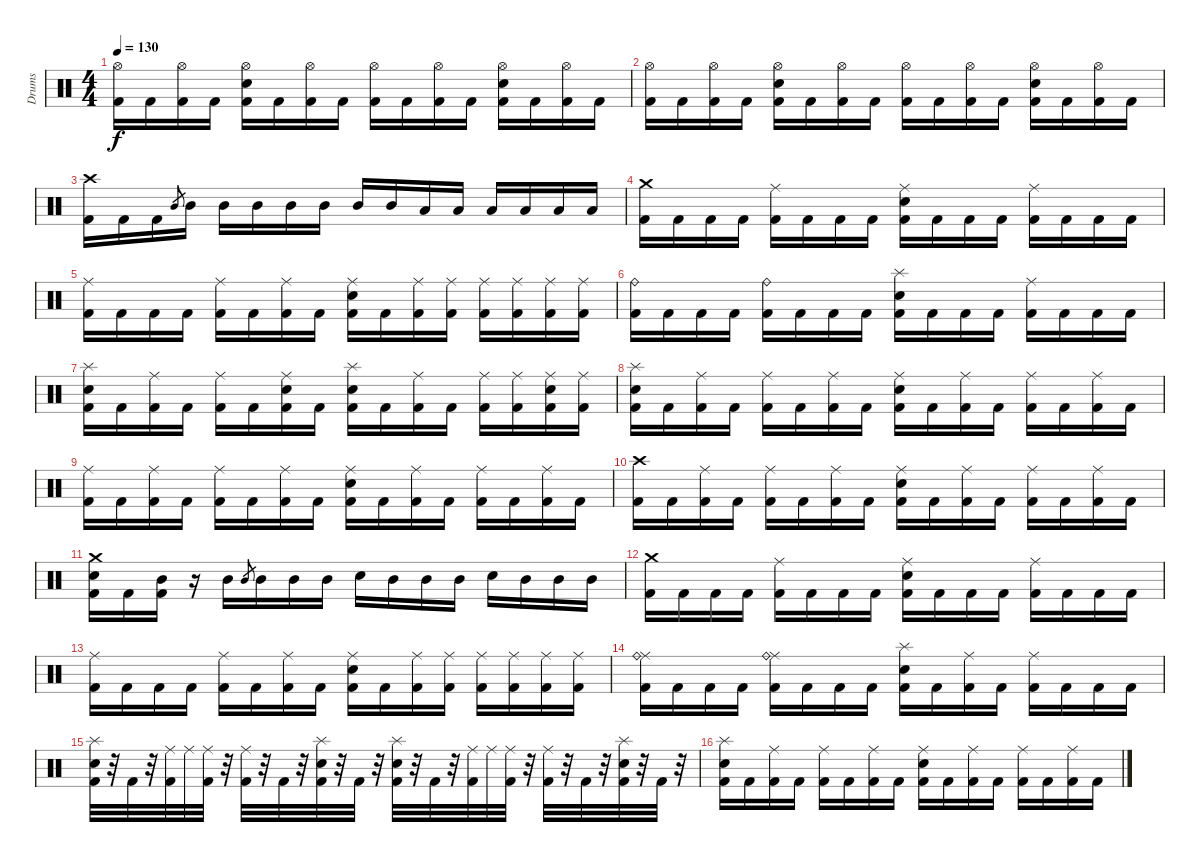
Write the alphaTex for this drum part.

\track ("Drums" "Drums") {instrument percussion}
\staff {score}
\articulation defaults
\ts (4 4)
\tempo 130
\clef neutral
\ks c
("Hi-Hat (open)" "Kick (hit) 2").16{dy f} "Kick (hit) 2".16 ("Hi-Hat (open)" "Kick (hit) 2").16 "Kick (hit) 2".16 ("Hi-Hat (open)" "Electric Snare (hit)" "Kick (hit) 2").16 "Kick (hit) 2".16 ("Hi-Hat (open)" "Kick (hit) 2").16 "Kick (hit) 2".16 ("Hi-Hat (open)" "Kick (hit) 2").16 "Kick (hit) 2".16 ("Hi-Hat (open)" "Kick (hit) 2").16 "Kick (hit) 2".16 ("Hi-Hat (open)" "Electric Snare (hit)" "Kick (hit) 2").16 "Kick (hit) 2".16 ("Hi-Hat (open)" "Kick (hit) 2").16 "Kick (hit) 2".16 |
("Hi-Hat (open)" "Kick (hit) 2").16 "Kick (hit) 2".16 ("Hi-Hat (open)" "Kick (hit) 2").16 "Kick (hit) 2".16 ("Hi-Hat (open)" "Electric Snare (hit)" "Kick (hit) 2").16 "Kick (hit) 2".16 ("Hi-Hat (open)" "Kick (hit) 2").16 "Kick (hit) 2".16 ("Hi-Hat (open)" "Kick (hit) 2").16 "Kick (hit) 2".16 ("Hi-Hat (open)" "Kick (hit) 2").16 "Kick (hit) 2".16 ("Hi-Hat (open)" "Electric Snare (hit)" "Kick (hit) 2").16 "Kick (hit) 2".16 ("Hi-Hat (open)" "Kick (hit) 2").16 "Kick (hit) 2".16 |
("Crash high (hit)" "Kick (hit) 2").16 "Kick (hit) 2".16 "Kick (hit) 2".16 "Mid Tom (hit)".8{gr} "Mid Tom (hit)".16 "Mid Tom (hit)".16 "Mid Tom (hit)".16 "Mid Tom (hit)".16 "Mid Tom (hit)".16 "Mid Tom (hit)".16 "Mid Tom (hit)".16 "Low Tom (hit)".16 "Low Tom (hit)".16 "Low Tom (hit)".16 "Low Tom (hit)".16 "Low Tom (hit)".16 "Low Tom (hit)".16 |
("Crash medium (hit)" "Kick (hit) 2").16 "Kick (hit) 2".16 "Kick (hit) 2".16 "Kick (hit) 2".16 ("Ride (middle)" "Kick (hit) 2").16 "Kick (hit) 2".16 "Kick (hit) 2".16 "Kick (hit) 2".16 ("Ride (middle)" "Electric Snare (hit)" "Kick (hit) 2").16 "Kick (hit) 2".16 "Kick (hit) 2".16 "Kick (hit) 2".16 ("Ride (middle)" "Kick (hit) 2").16 "Kick (hit) 2".16 "Kick (hit) 2".16 "Kick (hit) 2".16 |
("Ride (middle)" "Kick (hit) 2").16 "Kick (hit) 2".16 "Kick (hit) 2".16 "Kick (hit) 2".16 ("Ride (middle)" "Kick (hit) 2").16 "Kick (hit) 2".16 ("Ride (middle)" "Kick (hit) 2").16 "Kick (hit) 2".16 ("Ride (middle)" "Electric Snare (hit)" "Kick (hit) 2").16 "Kick (hit) 2".16 ("Ride (middle)" "Kick (hit) 2").16 ("Ride (middle)" "Kick (hit) 2").16 ("Ride (middle)" "Kick (hit) 2").16 ("Ride (middle)" "Kick (hit) 2").16 ("Ride (middle)" "Kick (hit) 2").16 ("Ride (middle)" "Kick (hit) 2").16 |
("Ride (bell)" "Kick (hit) 2").16 "Kick (hit) 2".16 "Kick (hit) 2".16 "Kick (hit) 2".16 ("Ride (bell)" "Kick (hit) 2").16 "Kick (hit) 2".16 "Kick (hit) 2".16 "Kick (hit) 2".16 ("Splash (hit)" "Electric Snare (hit)" "Kick (hit) 2").16 "Kick (hit) 2".16 "Kick (hit) 2".16 "Kick (hit) 2".16 ("Ride (middle)" "Kick (hit) 2").16 "Kick (hit) 2".16 "Kick (hit) 2".16 "Kick (hit) 2".16 |
("Splash (hit)" "Electric Snare (hit)" "Kick (hit) 2").16 "Kick (hit) 2".16 ("Ride (middle)" "Kick (hit) 2").16 "Kick (hit) 2".16 ("Ride (middle)" "Kick (hit) 2").16 "Kick (hit) 2".16 ("Ride (middle)" "Electric Snare (hit)" "Kick (hit) 2").16 "Kick (hit) 2".16 ("Splash (hit)" "Electric Snare (hit)" "Kick (hit) 2").16 "Kick (hit) 2".16 ("Ride (middle)" "Kick (hit) 2").16 "Kick (hit) 2".16 ("Ride (middle)" "Kick (hit) 2").16 ("Ride (middle)" "Kick (hit) 2").16 ("Ride (middle)" "Electric Snare (hit)" "Kick (hit) 2").16 ("Ride (middle)" "Kick (hit) 2").16 |
("Splash (hit)" "Electric Snare (hit)" "Kick (hit) 2").16 "Kick (hit) 2".16 ("Ride (middle)" "Kick (hit) 2").16 "Kick (hit) 2".16 ("Ride (middle)" "Kick (hit) 2").16 "Kick (hit) 2".16 ("Ride (middle)" "Kick (hit) 2").16 "Kick (hit) 2".16 ("Ride (middle)" "Electric Snare (hit)" "Kick (hit) 2").16 "Kick (hit) 2".16 ("Ride (middle)" "Kick (hit) 2").16 "Kick (hit) 2".16 ("Ride (middle)" "Kick (hit) 2").16 "Kick (hit) 2".16 ("Ride (middle)" "Kick (hit) 2").16 "Kick (hit) 2".16 |
("Ride (middle)" "Kick (hit) 2").16 "Kick (hit) 2".16 ("Ride (middle)" "Kick (hit) 2").16 "Kick (hit) 2".16 ("Ride (middle)" "Kick (hit) 2").16 "Kick (hit) 2".16 ("Ride (middle)" "Kick (hit) 2").16 "Kick (hit) 2".16 ("Ride (middle)" "Electric Snare (hit)" "Kick (hit) 2").16 "Kick (hit) 2".16 ("Ride (middle)" "Kick (hit) 2").16 "Kick (hit) 2".16 ("Ride (middle)" "Kick (hit) 2").16 "Kick (hit) 2".16 ("Ride (middle)" "Kick (hit) 2").16 "Kick (hit) 2".16 |
("Crash high (hit)" "Kick (hit) 2").16 "Kick (hit) 2".16 ("Ride (middle)" "Kick (hit) 2").16 "Kick (hit) 2".16 ("Ride (middle)" "Kick (hit) 2").16 "Kick (hit) 2".16 ("Ride (middle)" "Kick (hit) 2").16 "Kick (hit) 2".16 ("Ride (middle)" "Electric Snare (hit)" "Kick (hit) 2").16 "Kick (hit) 2".16 ("Ride (middle)" "Kick (hit) 2").16 "Kick (hit) 2".16 ("Ride (middle)" "Kick (hit) 2").16 "Kick (hit) 2".16 ("Ride (middle)" "Kick (hit) 2").16 "Kick (hit) 2".16 |
("Crash medium (hit)" "Electric Snare (hit)" "Kick (hit) 2").16 "Kick (hit) 2".16 ("Mid Tom (hit)" "Kick (hit) 2").16 r.16 "Mid Tom (hit)".16 "Mid Tom (hit)".8{gr} "Mid Tom (hit)".16 "Mid Tom (hit)".16 "Mid Tom (hit)".16 "Electric Snare (hit)".16 "Mid Tom (hit)".16 "Mid Tom (hit)".16 "Mid Tom (hit)".16 "Electric Snare (hit)".16 "Mid Tom (hit)".16 "Mid Tom (hit)".16 "Mid Tom (hit)".16 |
("Crash medium (hit)" "Kick (hit) 2").16 "Kick (hit) 2".16 "Kick (hit) 2".16 "Kick (hit) 2".16 ("Ride (middle)" "Kick (hit) 2").16 "Kick (hit) 2".16 "Kick (hit) 2".16 "Kick (hit) 2".16 ("Ride (middle)" "Electric Snare (hit)" "Kick (hit) 2").16 "Kick (hit) 2".16 "Kick (hit) 2".16 "Kick (hit) 2".16 ("Ride (middle)" "Kick (hit) 2").16 "Kick (hit) 2".16 "Kick (hit) 2".16 "Kick (hit) 2".16 |
("Ride (middle)" "Kick (hit) 2").16 "Kick (hit) 2".16 "Kick (hit) 2".16 "Kick (hit) 2".16 ("Ride (middle)" "Kick (hit) 2").16 "Kick (hit) 2".16 ("Ride (middle)" "Kick (hit) 2").16 "Kick (hit) 2".16 ("Ride (middle)" "Electric Snare (hit)" "Kick (hit) 2").16 "Kick (hit) 2".16 ("Ride (middle)" "Kick (hit) 2").16 ("Ride (middle)" "Kick (hit) 2").16 ("Ride (middle)" "Kick (hit) 2").16 ("Ride (middle)" "Kick (hit) 2").16 ("Ride (middle)" "Kick (hit) 2").16 ("Ride (middle)" "Kick (hit) 2").16 |
("Ride (middle)" "Ride (bell)" "Kick (hit) 2").16 "Kick (hit) 2".16 "Kick (hit) 2".16 "Kick (hit) 2".16 ("Ride (middle)" "Ride (bell)" "Kick (hit) 2").16 "Kick (hit) 2".16 "Kick (hit) 2".16 "Kick (hit) 2".16 ("Splash (hit)" "Electric Snare (hit)" "Kick (hit) 2").16 "Kick (hit) 2".16 ("Ride (middle)" "Kick (hit) 2").16 "Kick (hit) 2".16 ("Ride (middle)" "Kick (hit) 2").16 "Kick (hit) 2".16 "Kick (hit) 2".16 "Kick (hit) 2".16 |
("Splash (hit)" "Electric Snare (hit)" "Kick (hit) 2").32 r.32 "Kick (hit) 2".32 r.32 ("Ride (middle)" "Kick (hit) 2").32 "Ride (middle)".32 ("Ride (middle)" "Kick (hit) 2").32 r.32 ("Ride (middle)" "Kick (hit) 2").32 r.32 "Kick (hit) 2".32 r.32 ("Splash (hit)" "Electric Snare (hit)" "Kick (hit) 2").32 r.32 "Kick (hit) 2".32 r.32 ("Splash (hit)" "Electric Snare (hit)" "Kick (hit) 2").32 r.32 "Kick (hit) 2".32 r.32 ("Ride (middle)" "Kick (hit) 2").32 "Ride (middle)".32 ("Ride (middle)" "Kick (hit) 2").32 r.32 ("Ride (middle)" "Kick (hit) 2").32 r.32 "Kick (hit) 2".32 r.32 ("Splash (hit)" "Electric Snare (hit)" "Kick (hit) 2").32 r.32 "Kick (hit) 2".32 r.32 |
("Splash (hit)" "Electric Snare (hit)" "Kick (hit) 2").16 "Kick (hit) 2".16 ("Ride (middle)" "Kick (hit) 2").16 "Kick (hit) 2".16 ("Ride (middle)" "Kick (hit) 2").16 "Kick (hit) 2".16 ("Ride (middle)" "Kick (hit) 2").16 "Kick (hit) 2".16 ("Ride (middle)" "Electric Snare (hit)" "Kick (hit) 2").16 "Kick (hit) 2".16 ("Ride (middle)" "Kick (hit) 2").16 "Kick (hit) 2".16 ("Ride (middle)" "Kick (hit) 2").16 "Kick (hit) 2".16 ("Ride (middle)" "Kick (hit) 2").16 "Kick (hit) 2".16
